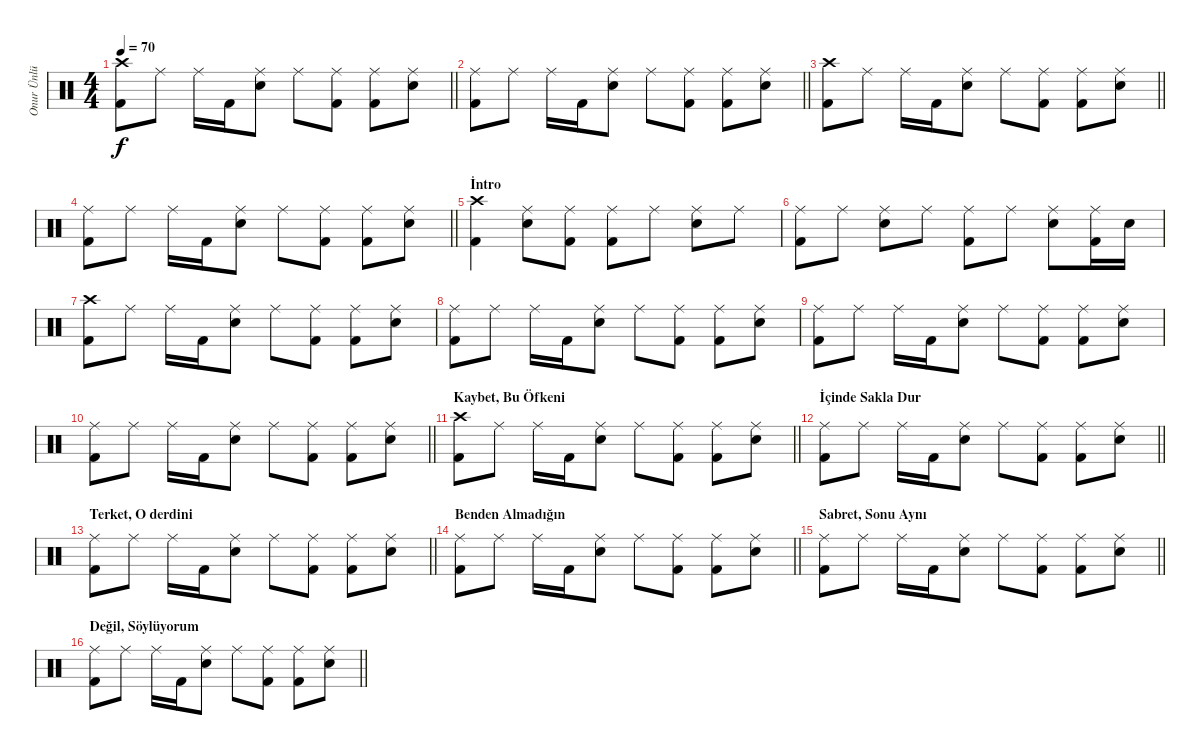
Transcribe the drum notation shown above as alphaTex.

\track ("Onur Ünlü - Davul" "Onur Ünlü ") {instrument percussion}
\staff {score}
\articulation defaults
\ts (4 4)
\tempo 70
\clef neutral
\barLineRight lightlight
\ks c
("Crash high (hit)" "Kick (hit) 2").8{dy f} "Ride (middle)".8 "Ride (middle)".16 "Kick (hit) 2".16 ("Ride (middle)" "Snare (hit) 2").8 "Ride (middle)".8 ("Ride (middle)" "Kick (hit) 2").8 ("Ride (middle)" "Kick (hit) 2").8 ("Ride (middle)" "Snare (hit) 2").8 |
\barLineRight lightlight
("Ride (middle)" "Kick (hit) 2").8 "Ride (middle)".8 "Ride (middle)".16 "Kick (hit) 2".16 ("Ride (middle)" "Snare (hit) 2").8 "Ride (middle)".8 ("Ride (middle)" "Kick (hit) 2").8 ("Ride (middle)" "Kick (hit) 2").8 ("Ride (middle)" "Snare (hit) 2").8 |
\barLineRight lightlight
("Crash high (hit)" "Kick (hit) 2").8 "Ride (middle)".8 "Ride (middle)".16 "Kick (hit) 2".16 ("Ride (middle)" "Snare (hit) 2").8 "Ride (middle)".8 ("Ride (middle)" "Kick (hit) 2").8 ("Ride (middle)" "Kick (hit) 2").8 ("Ride (middle)" "Snare (hit) 2").8 |
\barLineRight lightlight
("Ride (middle)" "Kick (hit) 2").8 "Ride (middle)".8 "Ride (middle)".16 "Kick (hit) 2".16 ("Ride (middle)" "Snare (hit) 2").8 "Ride (middle)".8 ("Ride (middle)" "Kick (hit) 2").8 ("Ride (middle)" "Kick (hit) 2").8 ("Ride (middle)" "Snare (hit) 2").8 |
\section ("" "İntro")
("Crash high (hit)" "Kick (hit) 2").4 ("Ride (middle)" "Snare (hit) 2").8 ("Ride (middle)" "Kick (hit) 2").8 ("Ride (middle)" "Kick (hit) 2").8 "Ride (middle)".8 ("Ride (middle)" "Snare (hit) 2").8 "Ride (middle)".8 |
("Ride (middle)" "Kick (hit) 2").8 "Ride (middle)".8 ("Ride (middle)" "Snare (hit) 2").8 "Ride (middle)".8 ("Ride (middle)" "Kick (hit) 2").8 "Ride (middle)".8 ("Ride (middle)" "Snare (hit) 2").8 ("Ride (middle)" "Kick (hit) 2").16 "Snare (hit) 2".16 |
("Crash high (hit)" "Kick (hit) 2").8 "Ride (middle)".8 "Ride (middle)".16 "Kick (hit) 2".16 ("Ride (middle)" "Snare (hit) 2").8 "Ride (middle)".8 ("Ride (middle)" "Kick (hit) 2").8 ("Ride (middle)" "Kick (hit) 2").8 ("Ride (middle)" "Snare (hit) 2").8 |
("Ride (middle)" "Kick (hit) 2").8 "Ride (middle)".8 "Ride (middle)".16 "Kick (hit) 2".16 ("Ride (middle)" "Snare (hit) 2").8 "Ride (middle)".8 ("Ride (middle)" "Kick (hit) 2").8 ("Ride (middle)" "Kick (hit) 2").8 ("Ride (middle)" "Snare (hit) 2").8 |
("Ride (middle)" "Kick (hit) 2").8 "Ride (middle)".8 "Ride (middle)".16 "Kick (hit) 2".16 ("Ride (middle)" "Snare (hit) 2").8 "Ride (middle)".8 ("Ride (middle)" "Kick (hit) 2").8 ("Ride (middle)" "Kick (hit) 2").8 ("Ride (middle)" "Snare (hit) 2").8 |
\barLineRight lightlight
("Ride (middle)" "Kick (hit) 2").8 "Ride (middle)".8 "Ride (middle)".16 "Kick (hit) 2".16 ("Ride (middle)" "Snare (hit) 2").8 "Ride (middle)".8 ("Ride (middle)" "Kick (hit) 2").8 ("Ride (middle)" "Kick (hit) 2").8 ("Ride (middle)" "Snare (hit) 2").8 |
\section ("" "Kaybet, Bu Öfkeni")
\barLineRight lightlight
("Crash high (hit)" "Kick (hit) 2").8 "Ride (middle)".8 "Ride (middle)".16 "Kick (hit) 2".16 ("Ride (middle)" "Snare (hit) 2").8 "Ride (middle)".8 ("Ride (middle)" "Kick (hit) 2").8 ("Ride (middle)" "Kick (hit) 2").8 ("Ride (middle)" "Snare (hit) 2").8 |
\section ("" "İçinde Sakla Dur")
\barLineRight lightlight
("Ride (middle)" "Kick (hit) 2").8 "Ride (middle)".8 "Ride (middle)".16 "Kick (hit) 2".16 ("Ride (middle)" "Snare (hit) 2").8 "Ride (middle)".8 ("Ride (middle)" "Kick (hit) 2").8 ("Ride (middle)" "Kick (hit) 2").8 ("Ride (middle)" "Snare (hit) 2").8 |
\section ("" "Terket, O derdini")
\barLineRight lightlight
("Ride (middle)" "Kick (hit) 2").8 "Ride (middle)".8 "Ride (middle)".16 "Kick (hit) 2".16 ("Ride (middle)" "Snare (hit) 2").8 "Ride (middle)".8 ("Ride (middle)" "Kick (hit) 2").8 ("Ride (middle)" "Kick (hit) 2").8 ("Ride (middle)" "Snare (hit) 2").8 |
\section ("" "Benden Almadığın")
\barLineRight lightlight
("Ride (middle)" "Kick (hit) 2").8 "Ride (middle)".8 "Ride (middle)".16 "Kick (hit) 2".16 ("Ride (middle)" "Snare (hit) 2").8 "Ride (middle)".8 ("Ride (middle)" "Kick (hit) 2").8 ("Ride (middle)" "Kick (hit) 2").8 ("Ride (middle)" "Snare (hit) 2").8 |
\section ("" "Sabret, Sonu Aynı")
\barLineRight lightlight
("Ride (middle)" "Kick (hit) 2").8 "Ride (middle)".8 "Ride (middle)".16 "Kick (hit) 2".16 ("Ride (middle)" "Snare (hit) 2").8 "Ride (middle)".8 ("Ride (middle)" "Kick (hit) 2").8 ("Ride (middle)" "Kick (hit) 2").8 ("Ride (middle)" "Snare (hit) 2").8 |
\section ("" "Değil, Söylüyorum")
\barLineRight lightlight
("Ride (middle)" "Kick (hit) 2").8 "Ride (middle)".8 "Ride (middle)".16 "Kick (hit) 2".16 ("Ride (middle)" "Snare (hit) 2").8 "Ride (middle)".8 ("Ride (middle)" "Kick (hit) 2").8 ("Ride (middle)" "Kick (hit) 2").8 ("Ride (middle)" "Snare (hit) 2").8
